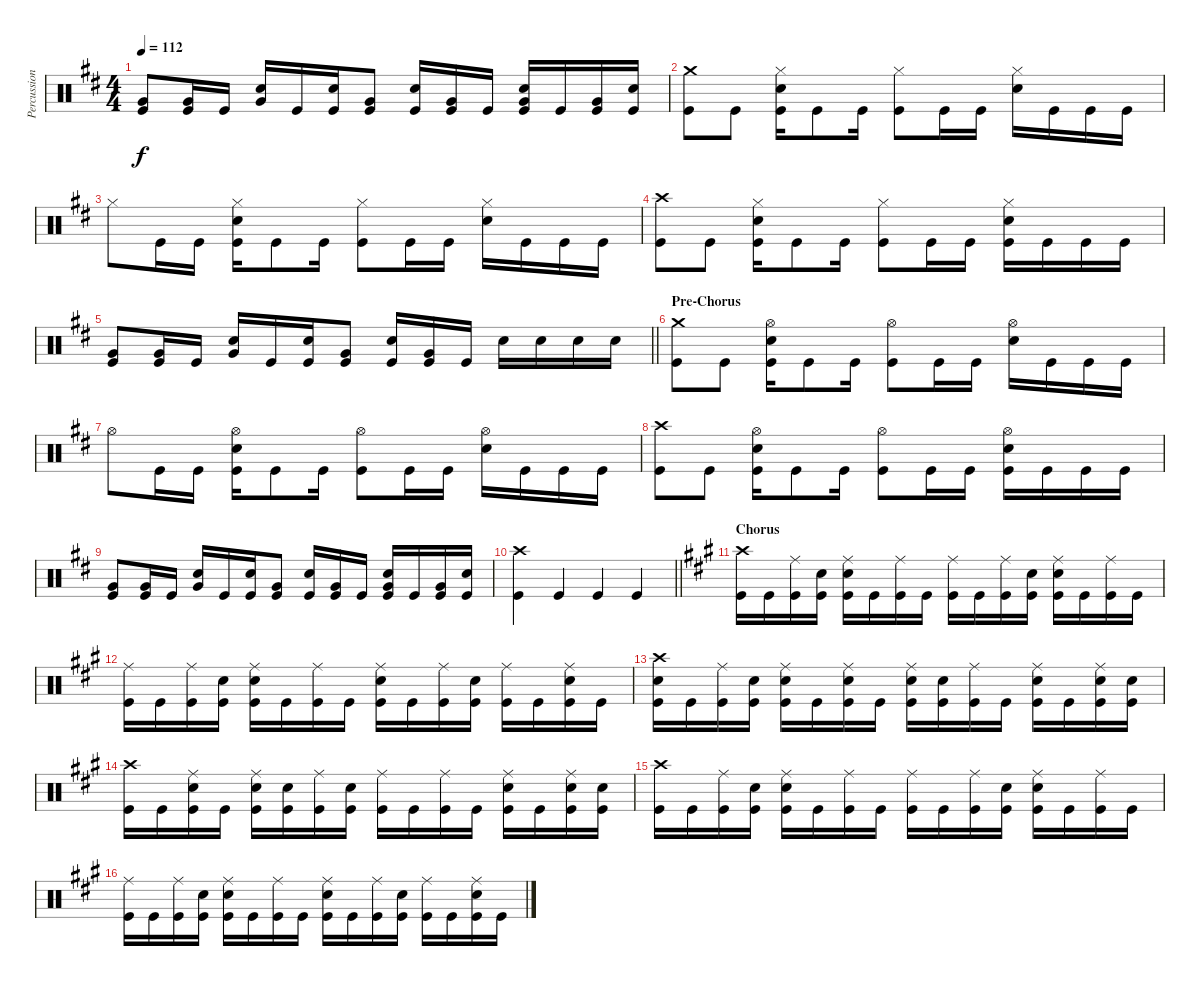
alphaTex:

\track ("Percussion" "Percussion") {instrument percussion}
\staff {score}
\articulation defaults
\ts (4 4)
\tempo 112
\clef neutral
\ks d
("Very Low Tom (hit)" "Kick (hit)").8{dy f} ("Very Low Tom (hit)" "Kick (hit)").16 "Kick (hit)".16 ("Very Low Tom (hit)" "Electric Snare (hit)").16 "Kick (hit)".16 ("Electric Snare (hit)" "Kick (hit)").16 ("Very Low Tom (hit)" "Kick (hit)").8 ("Electric Snare (hit)" "Kick (hit)").16 ("Very Low Tom (hit)" "Kick (hit)").16 "Kick (hit)".16 ("Very Low Tom (hit)" "Electric Snare (hit)" "Kick (hit)").16 "Kick (hit)".16 ("Very Low Tom (hit)" "Kick (hit)").16 ("Electric Snare (hit)" "Kick (hit)").16 |
("Crash medium (hit)" "Kick (hit)").8 "Kick (hit)".8 ("Hi-Hat (closed)" "Electric Snare (hit)" "Kick (hit)").16 "Kick (hit)".8 "Kick (hit)".16 ("Hi-Hat (closed)" "Kick (hit)").8 "Kick (hit)".16 "Kick (hit)".16 ("Hi-Hat (closed)" "Electric Snare (hit)").16 "Kick (hit)".16 "Kick (hit)".16 "Kick (hit)".16 |
"Hi-Hat (closed)".8 "Kick (hit)".16 "Kick (hit)".16 ("Hi-Hat (closed)" "Electric Snare (hit)" "Kick (hit)").16 "Kick (hit)".8 "Kick (hit)".16 ("Hi-Hat (closed)" "Kick (hit)").8 "Kick (hit)".16 "Kick (hit)".16 ("Hi-Hat (closed)" "Electric Snare (hit)").16 "Kick (hit)".16 "Kick (hit)".16 "Kick (hit)".16 |
("Crash high (hit)" "Kick (hit)").8 "Kick (hit)".8 ("Hi-Hat (closed)" "Electric Snare (hit)" "Kick (hit)").16 "Kick (hit)".8 "Kick (hit)".16 ("Hi-Hat (closed)" "Kick (hit)").8 "Kick (hit)".16 "Kick (hit)".16 ("Hi-Hat (closed)" "Electric Snare (hit)" "Kick (hit)").16 "Kick (hit)".16 "Kick (hit)".16 "Kick (hit)".16 |
\barLineRight lightlight
("Very Low Tom (hit)" "Kick (hit)").8 ("Very Low Tom (hit)" "Kick (hit)").16 "Kick (hit)".16 ("Very Low Tom (hit)" "Electric Snare (hit)").16 "Kick (hit)".16 ("Electric Snare (hit)" "Kick (hit)").16 ("Very Low Tom (hit)" "Kick (hit)").8 ("Electric Snare (hit)" "Kick (hit)").16 ("Very Low Tom (hit)" "Kick (hit)").16 "Kick (hit)".16 "Electric Snare (hit)".16 "Electric Snare (hit)".16 "Electric Snare (hit)".16 "Electric Snare (hit)".16 |
\section ("" "Pre-Chorus")
("Crash medium (hit)" "Kick (hit)").8 "Kick (hit)".8 ("Hi-Hat (open)" "Electric Snare (hit)" "Kick (hit)").16 "Kick (hit)".8 "Kick (hit)".16 ("Hi-Hat (open)" "Kick (hit)").8 "Kick (hit)".16 "Kick (hit)".16 ("Hi-Hat (open)" "Electric Snare (hit)").16 "Kick (hit)".16 "Kick (hit)".16 "Kick (hit)".16 |
"Hi-Hat (open)".8 "Kick (hit)".16 "Kick (hit)".16 ("Hi-Hat (open)" "Electric Snare (hit)" "Kick (hit)").16 "Kick (hit)".8 "Kick (hit)".16 ("Hi-Hat (open)" "Kick (hit)").8 "Kick (hit)".16 "Kick (hit)".16 ("Hi-Hat (open)" "Electric Snare (hit)").16 "Kick (hit)".16 "Kick (hit)".16 "Kick (hit)".16 |
("Crash high (hit)" "Kick (hit)").8 "Kick (hit)".8 ("Hi-Hat (open)" "Electric Snare (hit)" "Kick (hit)").16 "Kick (hit)".8 "Kick (hit)".16 ("Hi-Hat (open)" "Kick (hit)").8 "Kick (hit)".16 "Kick (hit)".16 ("Hi-Hat (open)" "Electric Snare (hit)" "Kick (hit)").16 "Kick (hit)".16 "Kick (hit)".16 "Kick (hit)".16 |
("Very Low Tom (hit)" "Kick (hit)").8 ("Very Low Tom (hit)" "Kick (hit)").16 "Kick (hit)".16 ("Very Low Tom (hit)" "Electric Snare (hit)").16 "Kick (hit)".16 ("Electric Snare (hit)" "Kick (hit)").16 ("Very Low Tom (hit)" "Kick (hit)").8 ("Electric Snare (hit)" "Kick (hit)").16 ("Very Low Tom (hit)" "Kick (hit)").16 "Kick (hit)".16 ("Very Low Tom (hit)" "Electric Snare (hit)" "Kick (hit)").16 "Kick (hit)".16 ("Very Low Tom (hit)" "Kick (hit)").16 ("Electric Snare (hit)" "Kick (hit)").16 |
\barLineRight lightlight
("Crash high (hit)" "Kick (hit)").4 "Kick (hit)".4 "Kick (hit)".4 "Kick (hit)".4 |
\section ("" "Chorus")
\ks a
("Crash high (hit)" "Kick (hit)").16 "Kick (hit)".16 ("Ride (middle)" "Kick (hit)").16 ("Electric Snare (hit)" "Kick (hit)").16 ("Ride (middle)" "Electric Snare (hit)" "Kick (hit)").16 "Kick (hit)".16 ("Ride (middle)" "Kick (hit)").16 "Kick (hit)".16 ("Ride (middle)" "Kick (hit)").16 "Kick (hit)".16 ("Ride (middle)" "Kick (hit)").16 ("Electric Snare (hit)" "Kick (hit)").16 ("Ride (middle)" "Electric Snare (hit)" "Kick (hit)").16 "Kick (hit)".16 ("Ride (middle)" "Kick (hit)").16 "Kick (hit)".16 |
("Ride (middle)" "Kick (hit)").16 "Kick (hit)".16 ("Ride (middle)" "Kick (hit)").16 ("Electric Snare (hit)" "Kick (hit)").16 ("Ride (middle)" "Electric Snare (hit)" "Kick (hit)").16 "Kick (hit)".16 ("Ride (middle)" "Kick (hit)").16 "Kick (hit)".16 ("Ride (middle)" "Electric Snare (hit)" "Kick (hit)").16 "Kick (hit)".16 ("Ride (middle)" "Kick (hit)").16 ("Electric Snare (hit)" "Kick (hit)").16 ("Ride (middle)" "Kick (hit)").16 "Kick (hit)".16 ("Ride (middle)" "Electric Snare (hit)" "Kick (hit)").16 "Kick (hit)".16 |
("Crash high (hit)" "Electric Snare (hit)" "Kick (hit)").16 "Kick (hit)".16 ("Ride (middle)" "Kick (hit)").16 ("Electric Snare (hit)" "Kick (hit)").16 ("Ride (middle)" "Electric Snare (hit)" "Kick (hit)").16 "Kick (hit)".16 ("Ride (middle)" "Electric Snare (hit)" "Kick (hit)").16 "Kick (hit)".16 ("Ride (middle)" "Electric Snare (hit)" "Kick (hit)").16 ("Electric Snare (hit)" "Kick (hit)").16 ("Ride (middle)" "Kick (hit)").16 "Kick (hit)".16 ("Ride (middle)" "Electric Snare (hit)" "Kick (hit)").16 "Kick (hit)".16 ("Ride (middle)" "Electric Snare (hit)" "Kick (hit)").16 ("Electric Snare (hit)" "Kick (hit)").16 |
("Crash high (hit)" "Kick (hit)").16 "Kick (hit)".16 ("Ride (middle)" "Electric Snare (hit)" "Kick (hit)").16 "Kick (hit)".16 ("Ride (middle)" "Electric Snare (hit)" "Kick (hit)").16 ("Electric Snare (hit)" "Kick (hit)").16 ("Ride (middle)" "Kick (hit)").16 ("Electric Snare (hit)" "Kick (hit)").16 ("Ride (middle)" "Kick (hit)").16 "Kick (hit)".16 ("Ride (middle)" "Kick (hit)").16 "Kick (hit)".16 ("Ride (middle)" "Electric Snare (hit)" "Kick (hit)").16 "Kick (hit)".16 ("Ride (middle)" "Electric Snare (hit)" "Kick (hit)").16 ("Electric Snare (hit)" "Kick (hit)").16 |
("Crash high (hit)" "Kick (hit)").16 "Kick (hit)".16 ("Ride (middle)" "Kick (hit)").16 ("Electric Snare (hit)" "Kick (hit)").16 ("Ride (middle)" "Electric Snare (hit)" "Kick (hit)").16 "Kick (hit)".16 ("Ride (middle)" "Kick (hit)").16 "Kick (hit)".16 ("Ride (middle)" "Kick (hit)").16 "Kick (hit)".16 ("Ride (middle)" "Kick (hit)").16 ("Electric Snare (hit)" "Kick (hit)").16 ("Ride (middle)" "Electric Snare (hit)" "Kick (hit)").16 "Kick (hit)".16 ("Ride (middle)" "Kick (hit)").16 "Kick (hit)".16 |
("Ride (middle)" "Kick (hit)").16 "Kick (hit)".16 ("Ride (middle)" "Kick (hit)").16 ("Electric Snare (hit)" "Kick (hit)").16 ("Ride (middle)" "Electric Snare (hit)" "Kick (hit)").16 "Kick (hit)".16 ("Ride (middle)" "Kick (hit)").16 "Kick (hit)".16 ("Ride (middle)" "Electric Snare (hit)" "Kick (hit)").16 "Kick (hit)".16 ("Ride (middle)" "Kick (hit)").16 ("Electric Snare (hit)" "Kick (hit)").16 ("Ride (middle)" "Kick (hit)").16 "Kick (hit)".16 ("Ride (middle)" "Electric Snare (hit)" "Kick (hit)").16 "Kick (hit)".16
